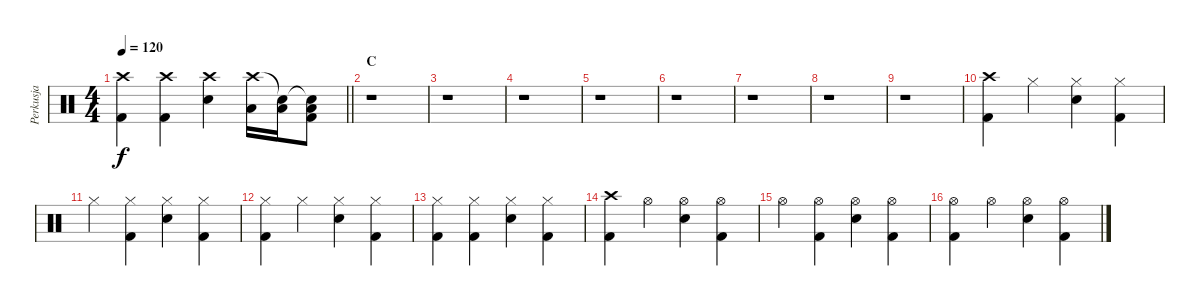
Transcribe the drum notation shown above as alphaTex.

\track ("Perkusja" "Perkusja") {instrument percussion}
\staff {score}
\articulation defaults
\ts (4 4)
\tempo 120
\clef neutral
\barLineRight lightlight
\ks c
("Crash high (hit)" "Kick (hit) 2").4{dy f} ("Crash high (hit)" "Kick (hit) 2").4 ("Crash high (hit)" "Electric Snare (hit)").4 ("Crash high (hit)" "Low Tom (hit)").16 ("Snare (hit)"{t} "Low Tom (hit)").16 ("Snare (hit)"{t} "Low Floor Tom (hit)" "Kick (hit) 2").8 |
\section ("" "C")
r.1 |
r.1 |
r.1 |
r.1 |
r.1 |
r.1 |
r.1 |
r.1 |
("Crash high (hit)" "Kick (hit) 2").4 "Hi-Hat (closed)".4 ("Hi-Hat (closed)" "Electric Snare (hit)").4 ("Hi-Hat (closed)" "Kick (hit) 2").4 |
"Hi-Hat (closed)".4 ("Hi-Hat (closed)" "Kick (hit) 2").4 ("Hi-Hat (closed)" "Electric Snare (hit)").4 ("Hi-Hat (closed)" "Kick (hit) 2").4 |
("Hi-Hat (closed)" "Kick (hit) 2").4 "Hi-Hat (closed)".4 ("Hi-Hat (closed)" "Electric Snare (hit)").4 ("Hi-Hat (closed)" "Kick (hit) 2").4 |
("Hi-Hat (closed)" "Kick (hit) 2").4 ("Hi-Hat (closed)" "Kick (hit) 2").4 ("Hi-Hat (closed)" "Electric Snare (hit)").4 ("Hi-Hat (closed)" "Kick (hit) 2").4 |
("Crash high (hit)" "Kick (hit) 2").4 "Hi-Hat (open)".4 ("Hi-Hat (open)" "Electric Snare (hit)").4 ("Hi-Hat (open)" "Kick (hit) 2").4 |
"Hi-Hat (open)".4 ("Hi-Hat (open)" "Kick (hit) 2").4 ("Hi-Hat (open)" "Electric Snare (hit)").4 ("Hi-Hat (open)" "Kick (hit) 2").4 |
("Hi-Hat (open)" "Kick (hit) 2").4 "Hi-Hat (open)".4 ("Hi-Hat (open)" "Electric Snare (hit)").4 ("Hi-Hat (open)" "Kick (hit) 2").4
